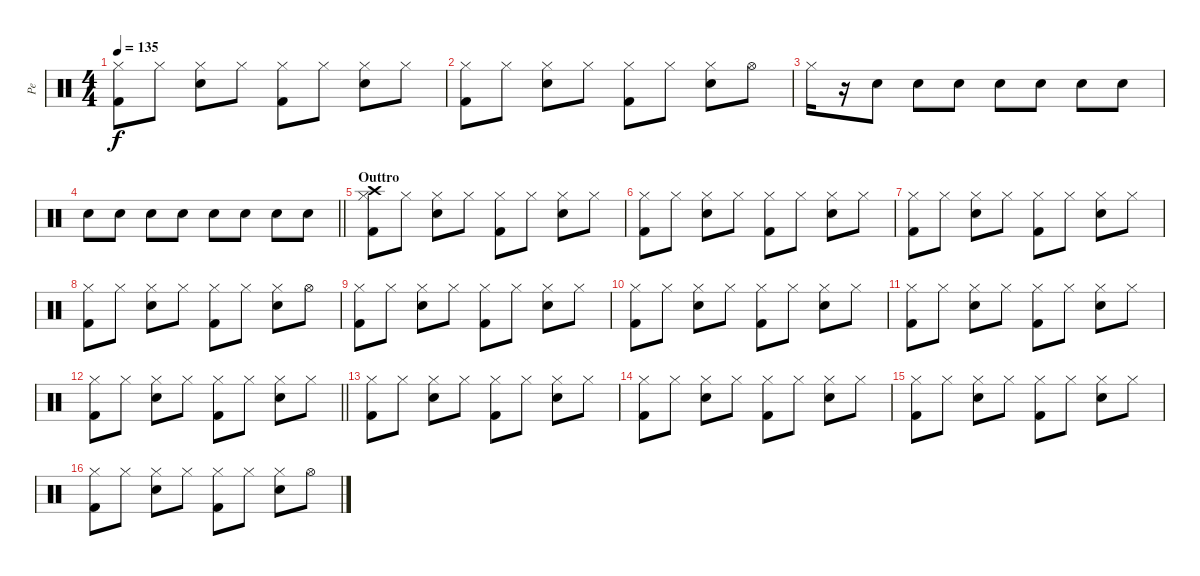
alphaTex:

\track ("Pe" "Pe") {instrument percussion}
\staff {score}
\articulation defaults
\ts (4 4)
\tempo 135
\clef neutral
\ks c
("Hi-Hat (closed)" "Kick (hit) 2").8{dy f} "Hi-Hat (closed)".8 ("Hi-Hat (closed)" "Electric Snare (hit)").8 "Hi-Hat (closed)".8 ("Hi-Hat (closed)" "Kick (hit) 2").8 "Hi-Hat (closed)".8 ("Hi-Hat (closed)" "Electric Snare (hit)").8 "Hi-Hat (closed)".8 |
("Hi-Hat (closed)" "Kick (hit) 2").8 "Hi-Hat (closed)".8 ("Hi-Hat (closed)" "Electric Snare (hit)").8 "Hi-Hat (closed)".8 ("Hi-Hat (closed)" "Kick (hit) 2").8 "Hi-Hat (closed)".8 ("Hi-Hat (closed)" "Electric Snare (hit)").8 "Hi-Hat (open)".8 |
"Hi-Hat (closed)".16 r.16{volume 6} "Electric Snare (hit)".8{volume 16} "Electric Snare (hit)".8 "Electric Snare (hit)".8 "Electric Snare (hit)".8 "Electric Snare (hit)".8 "Electric Snare (hit)".8 "Electric Snare (hit)".8 |
\barLineRight lightlight "Electric Snare (hit)".8 "Electric Snare (hit)".8 "Electric Snare (hit)".8 "Electric Snare (hit)".8 "Electric Snare (hit)".8 "Electric Snare (hit)".8 "Electric Snare (hit)".8 "Electric Snare (hit)".8
|
\section ("" "Outtro")
("Crash high (hit)" "Hi-Hat (closed)" "Kick (hit) 2").8 "Hi-Hat (closed)".8 ("Hi-Hat (closed)" "Electric Snare (hit)").8 "Hi-Hat (closed)".8 ("Hi-Hat (closed)" "Kick (hit) 2").8 "Hi-Hat (closed)".8 ("Hi-Hat (closed)" "Electric Snare (hit)").8 "Hi-Hat (closed)".8 |
("Hi-Hat (closed)" "Kick (hit) 2").8 "Hi-Hat (closed)".8 ("Hi-Hat (closed)" "Electric Snare (hit)").8 "Hi-Hat (closed)".8 ("Hi-Hat (closed)" "Kick (hit) 2").8 "Hi-Hat (closed)".8 ("Hi-Hat (closed)" "Electric Snare (hit)").8 "Hi-Hat (closed)".8 |
("Hi-Hat (closed)" "Kick (hit) 2").8 "Hi-Hat (closed)".8 ("Hi-Hat (closed)" "Electric Snare (hit)").8 "Hi-Hat (closed)".8 ("Hi-Hat (closed)" "Kick (hit) 2").8 "Hi-Hat (closed)".8 ("Hi-Hat (closed)" "Electric Snare (hit)").8 "Hi-Hat (closed)".8 |
("Hi-Hat (closed)" "Kick (hit) 2").8 "Hi-Hat (closed)".8 ("Hi-Hat (closed)" "Electric Snare (hit)").8 "Hi-Hat (closed)".8 ("Hi-Hat (closed)" "Kick (hit) 2").8 "Hi-Hat (closed)".8 ("Hi-Hat (closed)" "Electric Snare (hit)").8 "Hi-Hat (open)".8 |
("Hi-Hat (closed)" "Kick (hit) 2").8 "Hi-Hat (closed)".8 ("Hi-Hat (closed)" "Electric Snare (hit)").8 "Hi-Hat (closed)".8 ("Hi-Hat (closed)" "Kick (hit) 2").8 "Hi-Hat (closed)".8 ("Hi-Hat (closed)" "Electric Snare (hit)").8 "Hi-Hat (closed)".8 |
("Hi-Hat (closed)" "Kick (hit) 2").8 "Hi-Hat (closed)".8 ("Hi-Hat (closed)" "Electric Snare (hit)").8 "Hi-Hat (closed)".8 ("Hi-Hat (closed)" "Kick (hit) 2").8 "Hi-Hat (closed)".8 ("Hi-Hat (closed)" "Electric Snare (hit)").8 "Hi-Hat (closed)".8 |
("Hi-Hat (closed)" "Kick (hit) 2").8 "Hi-Hat (closed)".8 ("Hi-Hat (closed)" "Electric Snare (hit)").8 "Hi-Hat (closed)".8 ("Hi-Hat (closed)" "Kick (hit) 2").8 "Hi-Hat (closed)".8 ("Hi-Hat (closed)" "Electric Snare (hit)").8 "Hi-Hat (closed)".8 |
\barLineRight lightlight
("Hi-Hat (closed)" "Kick (hit) 2").8 "Hi-Hat (closed)".8 ("Hi-Hat (closed)" "Electric Snare (hit)").8 "Hi-Hat (closed)".8 ("Hi-Hat (closed)" "Kick (hit) 2").8 "Hi-Hat (closed)".8 ("Hi-Hat (closed)" "Electric Snare (hit)").8 "Hi-Hat (closed)".8 |
("Hi-Hat (closed)" "Kick (hit) 2").8 "Hi-Hat (closed)".8 ("Hi-Hat (closed)" "Electric Snare (hit)").8 "Hi-Hat (closed)".8 ("Hi-Hat (closed)" "Kick (hit) 2").8 "Hi-Hat (closed)".8 ("Hi-Hat (closed)" "Electric Snare (hit)").8 "Hi-Hat (closed)".8 |
("Hi-Hat (closed)" "Kick (hit) 2").8 "Hi-Hat (closed)".8 ("Hi-Hat (closed)" "Electric Snare (hit)").8 "Hi-Hat (closed)".8 ("Hi-Hat (closed)" "Kick (hit) 2").8 "Hi-Hat (closed)".8 ("Hi-Hat (closed)" "Electric Snare (hit)").8 "Hi-Hat (closed)".8 |
("Hi-Hat (closed)" "Kick (hit) 2").8 "Hi-Hat (closed)".8 ("Hi-Hat (closed)" "Electric Snare (hit)").8 "Hi-Hat (closed)".8 ("Hi-Hat (closed)" "Kick (hit) 2").8 "Hi-Hat (closed)".8 ("Hi-Hat (closed)" "Electric Snare (hit)").8 "Hi-Hat (closed)".8 |
("Hi-Hat (closed)" "Kick (hit) 2").8 "Hi-Hat (closed)".8 ("Hi-Hat (closed)" "Electric Snare (hit)").8 "Hi-Hat (closed)".8 ("Hi-Hat (closed)" "Kick (hit) 2").8 "Hi-Hat (closed)".8 ("Hi-Hat (closed)" "Electric Snare (hit)").8 "Hi-Hat (open)".8
